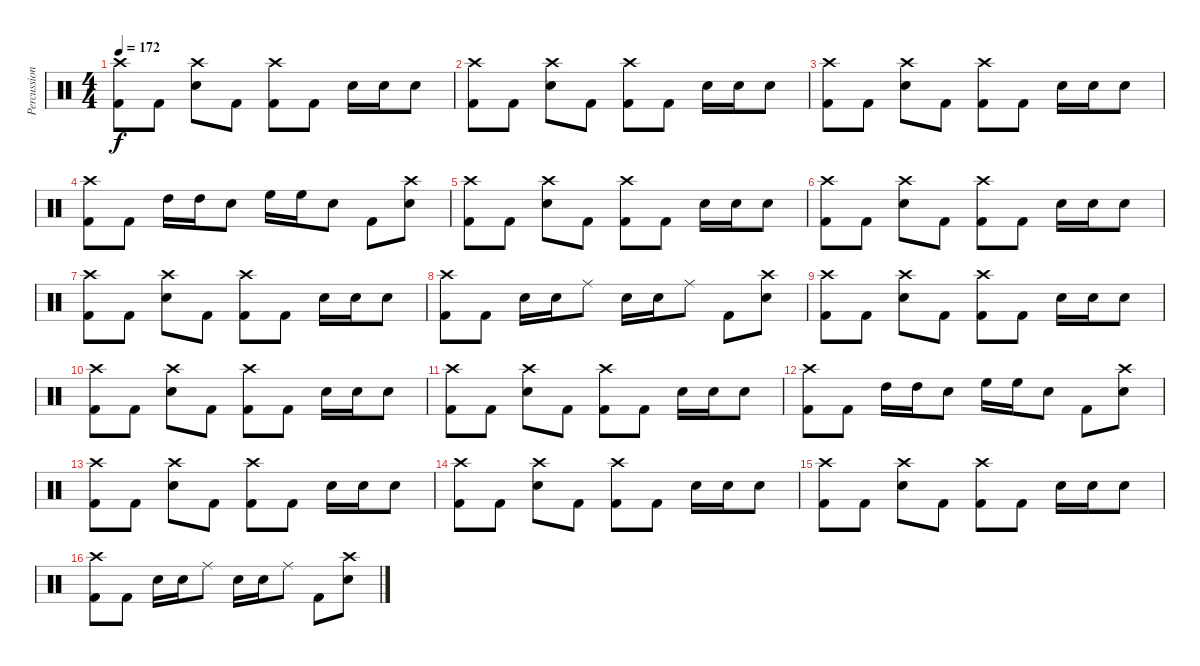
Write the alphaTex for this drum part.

\track ("Percussion" "Percussion") {instrument percussion}
\staff {score}
\articulation defaults
\ts (4 4)
\tempo 172
\clef neutral
\ks c
("Crash high (hit)" "Kick (hit) 2").8{dy f} "Kick (hit) 2".8 ("Crash high (hit)" "Snare (hit) 2").8 "Kick (hit) 2".8 ("Crash high (hit)" "Kick (hit) 2").8 "Kick (hit) 2".8 "Snare (hit) 2".16 "Snare (hit) 2".16 "Snare (hit) 2".8 |
("Crash high (hit)" "Kick (hit) 2").8 "Kick (hit) 2".8 ("Crash high (hit)" "Snare (hit) 2").8 "Kick (hit) 2".8 ("Crash high (hit)" "Kick (hit) 2").8 "Kick (hit) 2".8 "Snare (hit) 2".16 "Snare (hit) 2".16 "Snare (hit) 2".8 |
("Crash high (hit)" "Kick (hit) 2").8 "Kick (hit) 2".8 ("Crash high (hit)" "Snare (hit) 2").8 "Kick (hit) 2".8 ("Crash high (hit)" "Kick (hit) 2").8 "Kick (hit) 2".8 "Snare (hit) 2".16 "Snare (hit) 2".16 "Snare (hit) 2".8 |
("Crash high (hit)" "Kick (hit) 2").8 "Kick (hit) 2".8 "High Tom (hit)".16 "High Tom (hit)".16 "Snare (hit) 2".8 "High Floor Tom (hit)".16 "High Floor Tom (hit)".16 "Snare (hit) 2".8 "Kick (hit) 2".8 ("Crash high (hit)" "Snare (hit) 2").8 |
("Crash high (hit)" "Kick (hit) 2").8 "Kick (hit) 2".8 ("Crash high (hit)" "Snare (hit) 2").8 "Kick (hit) 2".8 ("Crash high (hit)" "Kick (hit) 2").8 "Kick (hit) 2".8 "Snare (hit) 2".16 "Snare (hit) 2".16 "Snare (hit) 2".8 |
("Crash high (hit)" "Kick (hit) 2").8 "Kick (hit) 2".8 ("Crash high (hit)" "Snare (hit) 2").8 "Kick (hit) 2".8 ("Crash high (hit)" "Kick (hit) 2").8 "Kick (hit) 2".8 "Snare (hit) 2".16 "Snare (hit) 2".16 "Snare (hit) 2".8 |
("Crash high (hit)" "Kick (hit) 2").8 "Kick (hit) 2".8 ("Crash high (hit)" "Snare (hit) 2").8 "Kick (hit) 2".8 ("Crash high (hit)" "Kick (hit) 2").8 "Kick (hit) 2".8 "Snare (hit) 2".16 "Snare (hit) 2".16 "Snare (hit) 2".8 |
("Crash high (hit)" "Kick (hit) 2").8 "Kick (hit) 2".8 "Snare (hit) 2".16 "Snare (hit) 2".16 "Ride (middle)".8 "Snare (hit) 2".16 "Snare (hit) 2".16 "Ride (middle)".8 "Kick (hit) 2".8 ("Crash high (hit)" "Snare (hit) 2").8 |
("Crash high (hit)" "Kick (hit) 2").8 "Kick (hit) 2".8 ("Crash high (hit)" "Snare (hit) 2").8 "Kick (hit) 2".8 ("Crash high (hit)" "Kick (hit) 2").8 "Kick (hit) 2".8 "Snare (hit) 2".16 "Snare (hit) 2".16 "Snare (hit) 2".8 |
("Crash high (hit)" "Kick (hit) 2").8 "Kick (hit) 2".8 ("Crash high (hit)" "Snare (hit) 2").8 "Kick (hit) 2".8 ("Crash high (hit)" "Kick (hit) 2").8 "Kick (hit) 2".8 "Snare (hit) 2".16 "Snare (hit) 2".16 "Snare (hit) 2".8 |
("Crash high (hit)" "Kick (hit) 2").8 "Kick (hit) 2".8 ("Crash high (hit)" "Snare (hit) 2").8 "Kick (hit) 2".8 ("Crash high (hit)" "Kick (hit) 2").8 "Kick (hit) 2".8 "Snare (hit) 2".16 "Snare (hit) 2".16 "Snare (hit) 2".8 |
("Crash high (hit)" "Kick (hit) 2").8 "Kick (hit) 2".8 "High Tom (hit)".16 "High Tom (hit)".16 "Snare (hit) 2".8 "High Floor Tom (hit)".16 "High Floor Tom (hit)".16 "Snare (hit) 2".8 "Kick (hit) 2".8 ("Crash high (hit)" "Snare (hit) 2").8 |
("Crash high (hit)" "Kick (hit) 2").8 "Kick (hit) 2".8 ("Crash high (hit)" "Snare (hit) 2").8 "Kick (hit) 2".8 ("Crash high (hit)" "Kick (hit) 2").8 "Kick (hit) 2".8 "Snare (hit) 2".16 "Snare (hit) 2".16 "Snare (hit) 2".8 |
("Crash high (hit)" "Kick (hit) 2").8 "Kick (hit) 2".8 ("Crash high (hit)" "Snare (hit) 2").8 "Kick (hit) 2".8 ("Crash high (hit)" "Kick (hit) 2").8 "Kick (hit) 2".8 "Snare (hit) 2".16 "Snare (hit) 2".16 "Snare (hit) 2".8 |
("Crash high (hit)" "Kick (hit) 2").8 "Kick (hit) 2".8 ("Crash high (hit)" "Snare (hit) 2").8 "Kick (hit) 2".8 ("Crash high (hit)" "Kick (hit) 2").8 "Kick (hit) 2".8 "Snare (hit) 2".16 "Snare (hit) 2".16 "Snare (hit) 2".8 |
("Crash high (hit)" "Kick (hit) 2").8 "Kick (hit) 2".8 "Snare (hit) 2".16 "Snare (hit) 2".16 "Ride (middle)".8 "Snare (hit) 2".16 "Snare (hit) 2".16 "Ride (middle)".8 "Kick (hit) 2".8 ("Crash high (hit)" "Snare (hit) 2").8
